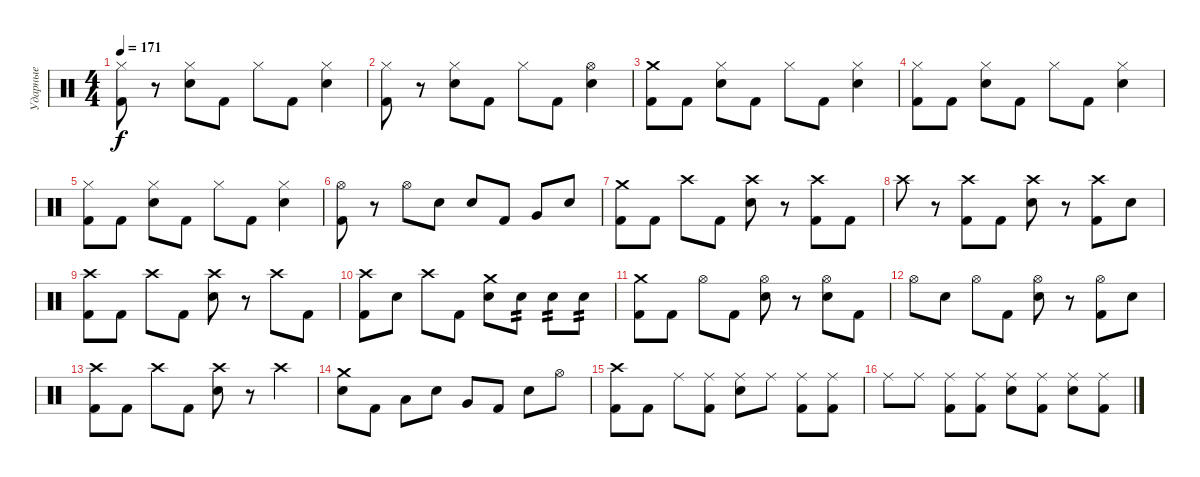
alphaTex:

\track ("Ударные" "Ударные") {instrument percussion}
\staff {score}
\articulation defaults
\ts (4 4)
\tempo 171
\clef neutral
\ks c
("Hi-Hat (closed)" "Kick (hit) 2").8{dy f} r.8 ("Hi-Hat (closed)" "Electric Snare (hit)").8 "Kick (hit) 2".8 "Hi-Hat (closed)".8 "Kick (hit) 2".8 ("Hi-Hat (closed)" "Electric Snare (hit)").4 |
("Hi-Hat (closed)" "Kick (hit) 2").8 r.8 ("Hi-Hat (closed)" "Electric Snare (hit)").8 "Kick (hit) 2".8 "Hi-Hat (closed)".8 "Kick (hit) 2".8 ("Hi-Hat (open)" "Electric Snare (hit)").4 |
("Crash medium (hit)" "Kick (hit) 2").8 "Kick (hit) 2".8 ("Hi-Hat (closed)" "Electric Snare (hit)").8 "Kick (hit) 2".8 "Hi-Hat (closed)".8 "Kick (hit) 2".8 ("Hi-Hat (closed)" "Electric Snare (hit)").4 |
("Hi-Hat (closed)" "Kick (hit) 2").8 "Kick (hit) 2".8 ("Hi-Hat (closed)" "Electric Snare (hit)").8 "Kick (hit) 2".8 "Hi-Hat (closed)".8 "Kick (hit) 2".8 ("Hi-Hat (closed)" "Electric Snare (hit)").4 |
("Hi-Hat (closed)" "Kick (hit) 2").8 "Kick (hit) 2".8 ("Hi-Hat (closed)" "Electric Snare (hit)").8 "Kick (hit) 2".8 "Hi-Hat (closed)".8 "Kick (hit) 2".8 ("Hi-Hat (closed)" "Electric Snare (hit)").4 |
("Hi-Hat (open)" "Kick (hit) 2").8 r.8 "Hi-Hat (open)".8 "Electric Snare (hit)".8 "Electric Snare (hit)".8 "Kick (hit) 2".8 "Very Low Tom (hit)".8 "Electric Snare (hit)".8 |
("Crash medium (hit)" "Kick (hit) 2").8 "Kick (hit) 2".8 "Crash high (hit)".8 "Kick (hit) 2".8 ("Crash high (hit)" "Electric Snare (hit)").8 r.8 ("Crash high (hit)" "Kick (hit) 2").8 "Kick (hit) 2".8 |
"Crash high (hit)".8 r.8 ("Crash high (hit)" "Kick (hit) 2").8 "Kick (hit) 2".8 ("Crash high (hit)" "Electric Snare (hit)").8 r.8 ("Crash high (hit)" "Kick (hit) 2").8 "Electric Snare (hit)".8 |
("Crash high (hit)" "Kick (hit) 2").8 "Kick (hit) 2".8 "Crash high (hit)".8 "Kick (hit) 2".8 ("Crash high (hit)" "Electric Snare (hit)").8 r.8 "Crash high (hit)".8 "Kick (hit) 2".8 |
("Crash high (hit)" "Kick (hit) 2").8 "Electric Snare (hit)".8 "Crash high (hit)".8 "Kick (hit) 2".8 ("Crash medium (hit)" "Electric Snare (hit)").8 "Electric Snare (hit)".8{tp 2} "Electric Snare (hit)".8{tp 2} "Electric Snare (hit)".8{tp 2} |
("Crash medium (hit)" "Kick (hit) 2").8 "Kick (hit) 2".8 "Hi-Hat (open)".8 "Kick (hit) 2".8 ("Hi-Hat (open)" "Electric Snare (hit)").8 r.8 ("Hi-Hat (open)" "Electric Snare (hit)").8 "Kick (hit) 2".8 |
"Hi-Hat (open)".8 "Electric Snare (hit)".8 "Hi-Hat (open)".8 "Kick (hit) 2".8 ("Hi-Hat (open)" "Electric Snare (hit)").8 r.8 ("Hi-Hat (open)" "Kick (hit) 2").8 "Electric Snare (hit)".8 |
("Crash high (hit)" "Kick (hit) 2").8 "Kick (hit) 2".8 "Crash high (hit)".8 "Kick (hit) 2".8 ("Crash high (hit)" "Electric Snare (hit)").8 r.8 "Crash high (hit)".4 |
("Crash medium (hit)" "Electric Snare (hit)").8 "Kick (hit) 2".8 "Low Tom (hit)".8 "Electric Snare (hit)".8 "Very Low Tom (hit)".8 "Kick (hit) 2".8 "Electric Snare (hit)".8 "Hi-Hat (open)".8 |
("Crash high (hit)" "Kick (hit) 2").8 "Kick (hit) 2".8 "Ride (middle)".8 ("Ride (middle)" "Kick (hit) 2").8 ("Ride (middle)" "Electric Snare (hit)").8 "Ride (middle)".8 ("Ride (middle)" "Kick (hit) 2").8 ("Ride (middle)" "Kick (hit) 2").8 |
"Ride (middle)".8 "Ride (middle)".8 ("Ride (middle)" "Kick (hit) 2").8 ("Ride (middle)" "Kick (hit) 2").8 ("Ride (middle)" "Electric Snare (hit)").8 ("Ride (middle)" "Kick (hit) 2").8 ("Ride (middle)" "Electric Snare (hit)").8 ("Ride (middle)" "Kick (hit) 2").8
